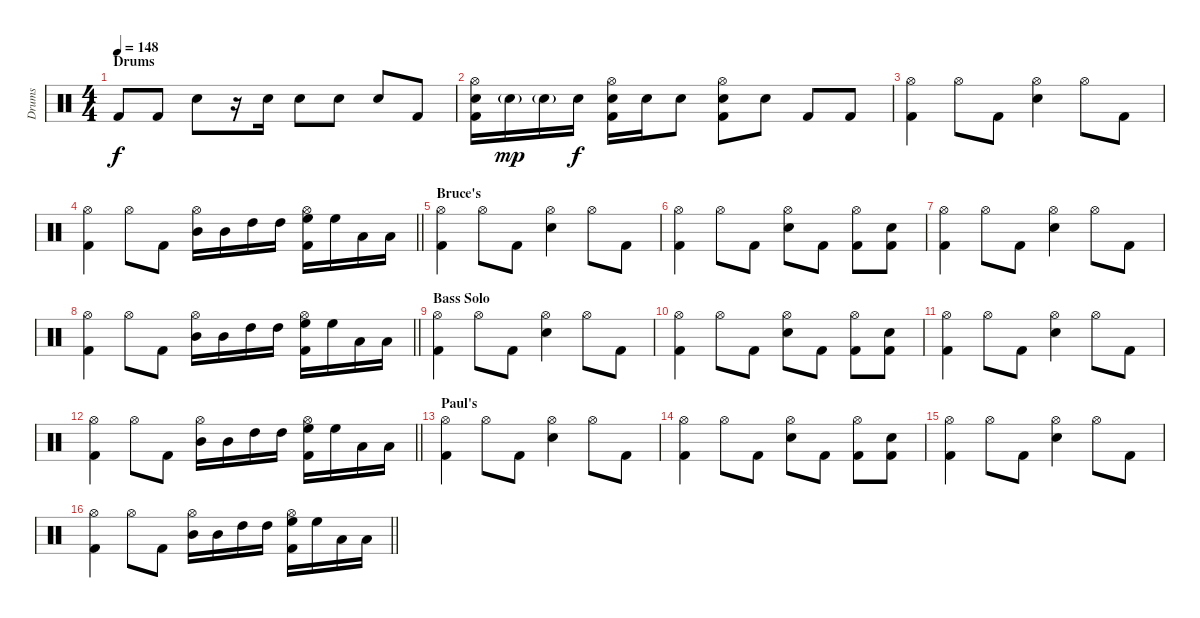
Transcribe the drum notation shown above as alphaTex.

\track ("Drums" "Drums") {instrument percussion}
\staff {score}
\articulation defaults
\ts (4 4)
\section ("" "Drums")
\tempo 148
\clef neutral
\ks c "Kick (hit) 2".8{dy f} "Kick (hit) 2".8 "Snare (hit) 2".8
r.16 "Snare (hit) 2".16 "Snare (hit) 2".8 "Snare (hit) 2".8 "Snare (hit) 2".8 "Kick (hit) 2".8 |
("Hi-Hat (open)" "Snare (hit) 2" "Kick (hit) 2").16 "Snare (hit) 2"{g}.16{dy mp} "Snare (hit) 2"{g}.16 "Snare (hit) 2".16{dy f} ("Hi-Hat (open)" "Snare (hit) 2" "Kick (hit) 2").16 "Snare (hit) 2".16 "Snare (hit) 2".8 ("Hi-Hat (open)" "Snare (hit) 2" "Kick (hit) 2").8 "Snare (hit) 2".8 "Kick (hit) 2".8 "Kick (hit) 2".8 |
("Hi-Hat (open)" "Kick (hit) 2").4 "Hi-Hat (open)".8 "Kick (hit) 2".8 ("Hi-Hat (open)" "Snare (hit) 2").4 "Hi-Hat (open)".8 "Kick (hit) 2".8 |
\barLineRight lightlight
("Hi-Hat (open)" "Kick (hit) 2").4 "Hi-Hat (open)".8 "Kick (hit) 2".8 ("Hi-Hat (open)" "Mid Tom (hit)").16 "Mid Tom (hit)".16 "High Tom (hit)".16 "High Tom (hit)".16 ("Hi-Hat (open)" "High Floor Tom (hit)" "Kick (hit) 2").16 "High Floor Tom (hit)".16 "Low Tom (hit)".16 "Low Tom (hit)".16 |
\section ("" "Bruce's ")
("Hi-Hat (open)" "Kick (hit) 2").4 "Hi-Hat (open)".8 "Kick (hit) 2".8 ("Hi-Hat (open)" "Snare (hit) 2").4 "Hi-Hat (open)".8 "Kick (hit) 2".8 |
("Hi-Hat (open)" "Kick (hit) 2").4 "Hi-Hat (open)".8 "Kick (hit) 2".8 ("Hi-Hat (open)" "Snare (hit) 2").8 "Kick (hit) 2".8 ("Hi-Hat (open)" "Kick (hit) 2").8 ("Snare (hit) 2" "Kick (hit) 2").8 |
("Hi-Hat (open)" "Kick (hit) 2").4 "Hi-Hat (open)".8 "Kick (hit) 2".8 ("Hi-Hat (open)" "Snare (hit) 2").4 "Hi-Hat (open)".8 "Kick (hit) 2".8 |
\barLineRight lightlight
("Hi-Hat (open)" "Kick (hit) 2").4 "Hi-Hat (open)".8 "Kick (hit) 2".8 ("Hi-Hat (open)" "Mid Tom (hit)").16 "Mid Tom (hit)".16 "High Tom (hit)".16 "High Tom (hit)".16 ("Hi-Hat (open)" "High Floor Tom (hit)" "Kick (hit) 2").16 "High Floor Tom (hit)".16 "Low Tom (hit)".16 "Low Tom (hit)".16 |
\section ("" "Bass Solo")
("Hi-Hat (open)" "Kick (hit) 2").4 "Hi-Hat (open)".8 "Kick (hit) 2".8 ("Hi-Hat (open)" "Snare (hit) 2").4 "Hi-Hat (open)".8 "Kick (hit) 2".8 |
("Hi-Hat (open)" "Kick (hit) 2").4 "Hi-Hat (open)".8 "Kick (hit) 2".8 ("Hi-Hat (open)" "Snare (hit) 2").8 "Kick (hit) 2".8 ("Hi-Hat (open)" "Kick (hit) 2").8 ("Snare (hit) 2" "Kick (hit) 2").8 |
("Hi-Hat (open)" "Kick (hit) 2").4 "Hi-Hat (open)".8 "Kick (hit) 2".8 ("Hi-Hat (open)" "Snare (hit) 2").4 "Hi-Hat (open)".8 "Kick (hit) 2".8 |
\barLineRight lightlight
("Hi-Hat (open)" "Kick (hit) 2").4 "Hi-Hat (open)".8 "Kick (hit) 2".8 ("Hi-Hat (open)" "Mid Tom (hit)").16 "Mid Tom (hit)".16 "High Tom (hit)".16 "High Tom (hit)".16 ("Hi-Hat (open)" "High Floor Tom (hit)" "Kick (hit) 2").16 "High Floor Tom (hit)".16 "Low Tom (hit)".16 "Low Tom (hit)".16 |
\section ("" "Paul's")
("Hi-Hat (open)" "Kick (hit) 2").4 "Hi-Hat (open)".8 "Kick (hit) 2".8 ("Hi-Hat (open)" "Snare (hit) 2").4 "Hi-Hat (open)".8 "Kick (hit) 2".8 |
("Hi-Hat (open)" "Kick (hit) 2").4 "Hi-Hat (open)".8 "Kick (hit) 2".8 ("Hi-Hat (open)" "Snare (hit) 2").8 "Kick (hit) 2".8 ("Hi-Hat (open)" "Kick (hit) 2").8 ("Snare (hit) 2" "Kick (hit) 2").8 |
("Hi-Hat (open)" "Kick (hit) 2").4 "Hi-Hat (open)".8 "Kick (hit) 2".8 ("Hi-Hat (open)" "Snare (hit) 2").4 "Hi-Hat (open)".8 "Kick (hit) 2".8 |
\barLineRight lightlight
("Hi-Hat (open)" "Kick (hit) 2").4 "Hi-Hat (open)".8 "Kick (hit) 2".8 ("Hi-Hat (open)" "Mid Tom (hit)").16 "Mid Tom (hit)".16 "High Tom (hit)".16 "High Tom (hit)".16 ("Hi-Hat (open)" "High Floor Tom (hit)" "Kick (hit) 2").16 "High Floor Tom (hit)".16 "Low Tom (hit)".16 "Low Tom (hit)".16
